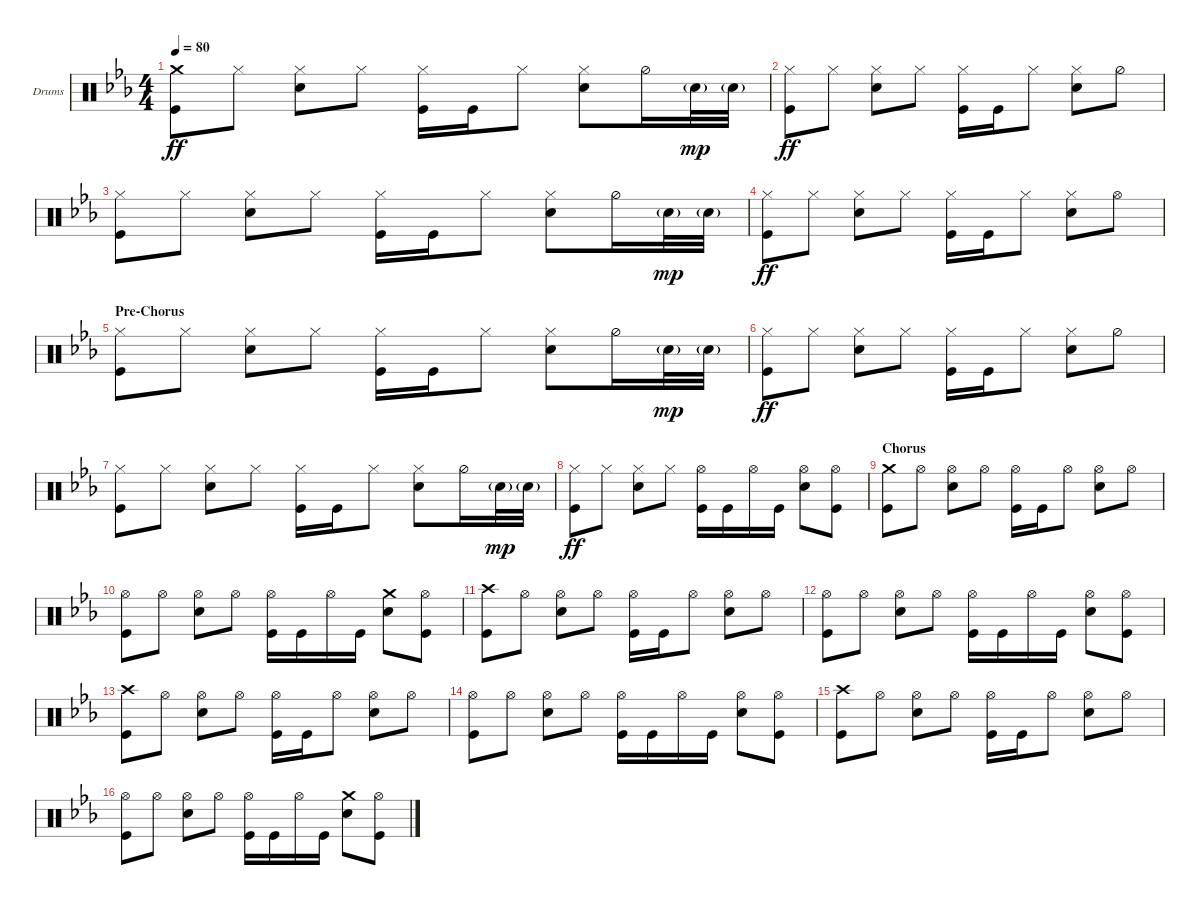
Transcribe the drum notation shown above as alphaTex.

\defaultSystemsLayout 4
\bracketExtendMode groupsimilarinstruments
\firstSystemTrackNameOrientation horizontal
\otherSystemsTrackNameOrientation horizontal
\track ("Mario Goossens" "Drums") {instrument percussion}
\staff {score}
\articulation defaults
\ts (4 4)
\tempo 80
\clef neutral
\ks cminor
("Kick (hit)" "Crash medium (hit)").8{dy ff} "Hi-Hat (closed)".8 ("Hi-Hat (closed)" "Snare (hit) 2").8 "Hi-Hat (closed)".8 ("Kick (hit)" "Hi-Hat (closed)").16 "Kick (hit)".16 "Hi-Hat (closed)".8 ("Hi-Hat (closed)" "Snare (hit) 2").8 "Hi-Hat (half)".16 "Snare (hit) 2"{g}.32{dy mp} "Snare (hit) 2"{g}.32 |
("Kick (hit)" "Hi-Hat (closed)").8{dy ff} "Hi-Hat (closed)".8 ("Hi-Hat (closed)" "Snare (hit) 2").8 "Hi-Hat (closed)".8 ("Kick (hit)" "Hi-Hat (closed)").16 "Kick (hit)".16 "Hi-Hat (closed)".8 ("Hi-Hat (closed)" "Snare (hit) 2").8 "Hi-Hat (half)".8 |
("Kick (hit)" "Hi-Hat (closed)").8 "Hi-Hat (closed)".8 ("Hi-Hat (closed)" "Snare (hit) 2").8 "Hi-Hat (closed)".8 ("Kick (hit)" "Hi-Hat (closed)").16 "Kick (hit)".16 "Hi-Hat (closed)".8 ("Hi-Hat (closed)" "Snare (hit) 2").8 "Hi-Hat (half)".16 "Snare (hit) 2"{g}.32{dy mp} "Snare (hit) 2"{g}.32 |
("Kick (hit)" "Hi-Hat (closed)").8{dy ff} "Hi-Hat (closed)".8 ("Hi-Hat (closed)" "Snare (hit) 2").8 "Hi-Hat (closed)".8 ("Kick (hit)" "Hi-Hat (closed)").16 "Kick (hit)".16 "Hi-Hat (closed)".8 ("Hi-Hat (closed)" "Snare (hit) 2").8 "Hi-Hat (open)".8 |
\section ("" "Pre-Chorus")
("Kick (hit)" "Hi-Hat (closed)").8 "Hi-Hat (closed)".8 ("Hi-Hat (closed)" "Snare (hit) 2").8 "Hi-Hat (closed)".8 ("Kick (hit)" "Hi-Hat (closed)").16 "Kick (hit)".16 "Hi-Hat (closed)".8 ("Hi-Hat (closed)" "Snare (hit) 2").8 "Hi-Hat (half)".16 "Snare (hit) 2"{g}.32{dy mp} "Snare (hit) 2"{g}.32 |
("Kick (hit)" "Hi-Hat (closed)").8{dy ff} "Hi-Hat (closed)".8 ("Hi-Hat (closed)" "Snare (hit) 2").8 "Hi-Hat (closed)".8 ("Kick (hit)" "Hi-Hat (closed)").16 "Kick (hit)".16 "Hi-Hat (closed)".8 ("Hi-Hat (closed)" "Snare (hit) 2").8 "Hi-Hat (half)".8 |
("Kick (hit)" "Hi-Hat (closed)").8 "Hi-Hat (closed)".8 ("Hi-Hat (closed)" "Snare (hit) 2").8 "Hi-Hat (closed)".8 ("Kick (hit)" "Hi-Hat (closed)").16 "Kick (hit)".16 "Hi-Hat (closed)".8 ("Hi-Hat (closed)" "Snare (hit) 2").8 "Hi-Hat (half)".16 "Snare (hit) 2"{g}.32{dy mp} "Snare (hit) 2"{g}.32 |
("Kick (hit)" "Hi-Hat (closed)").8{dy ff} "Hi-Hat (closed)".8 ("Hi-Hat (closed)" "Snare (hit) 2").8 "Hi-Hat (closed)".8 ("Kick (hit)" "Hi-Hat (open)").16 "Kick (hit)".16 "Hi-Hat (open)".16 "Kick (hit)".16 ("Hi-Hat (open)" "Snare (hit) 2").8 ("Hi-Hat (open)" "Kick (hit)").8 |
\section ("" "Chorus")
("Kick (hit)" "Crash medium (hit)").8 "Hi-Hat (open)".8 ("Hi-Hat (open)" "Snare (hit) 2").8 "Hi-Hat (open)".8 ("Kick (hit)" "Hi-Hat (open)").16 "Kick (hit)".16 "Hi-Hat (open)".8 ("Hi-Hat (open)" "Snare (hit) 2").8 "Hi-Hat (open)".8 |
("Kick (hit)" "Hi-Hat (open)").8 "Hi-Hat (open)".8 ("Hi-Hat (open)" "Snare (hit) 2").8 "Hi-Hat (open)".8 ("Kick (hit)" "Hi-Hat (open)").16 "Kick (hit)".16 "Hi-Hat (open)".16 "Kick (hit)".16 ("Snare (hit) 2" "Crash medium (hit)").8 ("Hi-Hat (open)" "Kick (hit)").8 |
("Kick (hit)" "Crash high (hit)").8 "Hi-Hat (open)".8 ("Hi-Hat (open)" "Snare (hit) 2").8 "Hi-Hat (open)".8 ("Kick (hit)" "Hi-Hat (open)").16 "Kick (hit)".16 "Hi-Hat (open)".8 ("Hi-Hat (open)" "Snare (hit) 2").8 "Hi-Hat (open)".8 |
("Kick (hit)" "Hi-Hat (open)").8 "Hi-Hat (open)".8 ("Hi-Hat (open)" "Snare (hit) 2").8 "Hi-Hat (open)".8 ("Kick (hit)" "Hi-Hat (open)").16 "Kick (hit)".16 "Hi-Hat (open)".16 "Kick (hit)".16 ("Snare (hit) 2" "Hi-Hat (open)").8 ("Hi-Hat (open)" "Kick (hit)").8 |
("Kick (hit)" "Crash high (hit)").8 "Hi-Hat (open)".8 ("Hi-Hat (open)" "Snare (hit) 2").8 "Hi-Hat (open)".8 ("Kick (hit)" "Hi-Hat (open)").16 "Kick (hit)".16 "Hi-Hat (open)".8 ("Hi-Hat (open)" "Snare (hit) 2").8 "Hi-Hat (open)".8 |
("Kick (hit)" "Hi-Hat (open)").8 "Hi-Hat (open)".8 ("Hi-Hat (open)" "Snare (hit) 2").8 "Hi-Hat (open)".8 ("Kick (hit)" "Hi-Hat (open)").16 "Kick (hit)".16 "Hi-Hat (open)".16 "Kick (hit)".16 ("Snare (hit) 2" "Hi-Hat (open)").8 ("Hi-Hat (open)" "Kick (hit)").8 |
("Kick (hit)" "Crash high (hit)").8 "Hi-Hat (open)".8 ("Hi-Hat (open)" "Snare (hit) 2").8 "Hi-Hat (open)".8 ("Kick (hit)" "Hi-Hat (open)").16 "Kick (hit)".16 "Hi-Hat (open)".8 ("Hi-Hat (open)" "Snare (hit) 2").8 "Hi-Hat (open)".8 |
("Kick (hit)" "Hi-Hat (open)").8 "Hi-Hat (open)".8 ("Hi-Hat (open)" "Snare (hit) 2").8 "Hi-Hat (open)".8 ("Kick (hit)" "Hi-Hat (open)").16 "Kick (hit)".16 "Hi-Hat (open)".16 "Kick (hit)".16 ("Snare (hit) 2" "Crash medium (hit)").8 ("Hi-Hat (open)" "Kick (hit)").8
